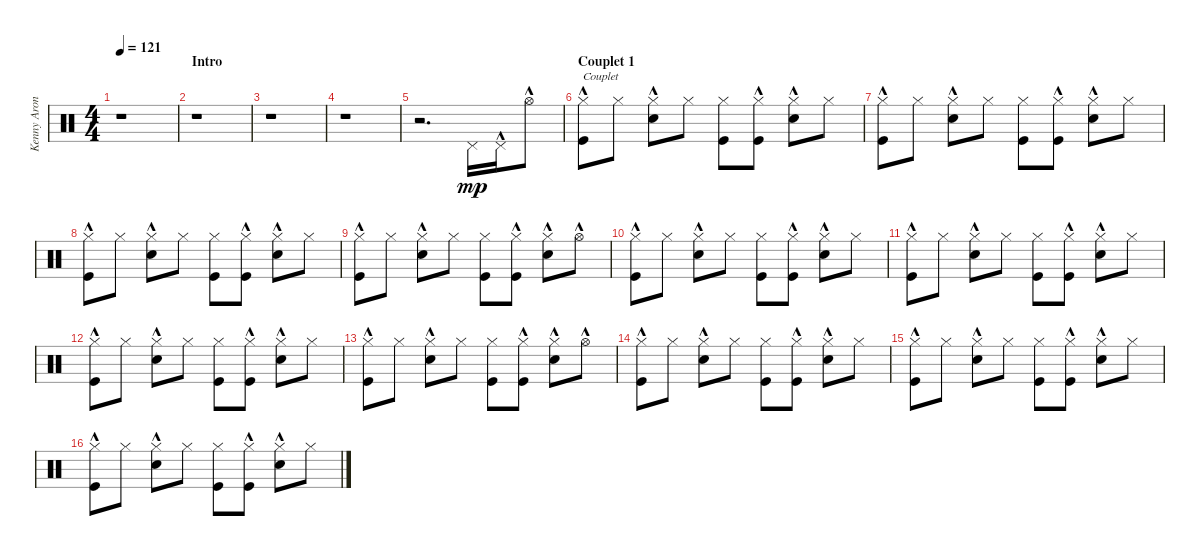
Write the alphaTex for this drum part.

\track ("Kenny Aronoff - Batterie" "Kenny Aron") {instrument percussion}
\staff {score}
\articulation defaults
\ts (4 4)
\tempo 121
\clef neutral
\ks c
r.1{dy mp} |
\section ("" "Intro")
r.1 |
r.1 |
r.1 |
r.2{d} "Pedal Hi-Hat (hit)".16 "Pedal Hi-Hat (hit)"{hac}.16 "Hi-Hat (open)"{hac}.8 |
\section ("" "Couplet 1")
("Kick (hit)"{hac} "Hi-Hat (closed)").8{txt "Couplet"} "Hi-Hat (closed)".8 ("Snare (hit) 2"{hac} "Hi-Hat (closed)").8 "Hi-Hat (closed)".8 ("Kick (hit)" "Hi-Hat (closed)").8 ("Kick (hit)"{hac} "Hi-Hat (closed)").8 ("Snare (hit) 2"{hac} "Hi-Hat (closed)").8 "Hi-Hat (closed)".8 |
("Kick (hit)"{hac} "Hi-Hat (closed)").8 "Hi-Hat (closed)".8 ("Snare (hit) 2"{hac} "Hi-Hat (closed)").8 "Hi-Hat (closed)".8 ("Kick (hit)" "Hi-Hat (closed)").8 ("Kick (hit)"{hac} "Hi-Hat (closed)").8 ("Snare (hit) 2"{hac} "Hi-Hat (closed)").8 "Hi-Hat (closed)".8 |
("Kick (hit)"{hac} "Hi-Hat (closed)").8 "Hi-Hat (closed)".8 ("Snare (hit) 2"{hac} "Hi-Hat (closed)").8 "Hi-Hat (closed)".8 ("Kick (hit)" "Hi-Hat (closed)").8 ("Kick (hit)"{hac} "Hi-Hat (closed)").8 ("Snare (hit) 2"{hac} "Hi-Hat (closed)").8 "Hi-Hat (closed)".8 |
("Kick (hit)"{hac} "Hi-Hat (closed)").8 "Hi-Hat (closed)".8 ("Snare (hit) 2"{hac} "Hi-Hat (closed)").8 "Hi-Hat (closed)".8 ("Kick (hit)" "Hi-Hat (closed)").8 ("Kick (hit)"{hac} "Hi-Hat (closed)").8 ("Snare (hit) 2"{hac} "Hi-Hat (closed)"{hac}).8 "Hi-Hat (open)"{hac}.8 |
("Kick (hit)"{hac} "Hi-Hat (closed)").8 "Hi-Hat (closed)".8 ("Snare (hit) 2"{hac} "Hi-Hat (closed)").8 "Hi-Hat (closed)".8 ("Kick (hit)" "Hi-Hat (closed)").8 ("Kick (hit)"{hac} "Hi-Hat (closed)").8 ("Snare (hit) 2"{hac} "Hi-Hat (closed)").8 "Hi-Hat (closed)".8 |
("Kick (hit)"{hac} "Hi-Hat (closed)").8 "Hi-Hat (closed)".8 ("Snare (hit) 2"{hac} "Hi-Hat (closed)").8 "Hi-Hat (closed)".8 ("Kick (hit)" "Hi-Hat (closed)").8 ("Kick (hit)"{hac} "Hi-Hat (closed)").8 ("Snare (hit) 2"{hac} "Hi-Hat (closed)").8 "Hi-Hat (closed)".8 |
("Kick (hit)"{hac} "Hi-Hat (closed)").8 "Hi-Hat (closed)".8 ("Snare (hit) 2"{hac} "Hi-Hat (closed)").8 "Hi-Hat (closed)".8 ("Kick (hit)" "Hi-Hat (closed)").8 ("Kick (hit)"{hac} "Hi-Hat (closed)").8 ("Snare (hit) 2"{hac} "Hi-Hat (closed)").8 "Hi-Hat (closed)".8 |
("Kick (hit)"{hac} "Hi-Hat (closed)").8 "Hi-Hat (closed)".8 ("Snare (hit) 2"{hac} "Hi-Hat (closed)").8 "Hi-Hat (closed)".8 ("Kick (hit)" "Hi-Hat (closed)").8 ("Kick (hit)"{hac} "Hi-Hat (closed)").8 ("Snare (hit) 2"{hac} "Hi-Hat (closed)"{hac}).8 "Hi-Hat (open)"{hac}.8 |
("Kick (hit)"{hac} "Hi-Hat (closed)").8 "Hi-Hat (closed)".8 ("Snare (hit) 2"{hac} "Hi-Hat (closed)").8 "Hi-Hat (closed)".8 ("Kick (hit)" "Hi-Hat (closed)").8 ("Kick (hit)"{hac} "Hi-Hat (closed)").8 ("Snare (hit) 2"{hac} "Hi-Hat (closed)").8 "Hi-Hat (closed)".8 |
("Kick (hit)"{hac} "Hi-Hat (closed)").8 "Hi-Hat (closed)".8 ("Snare (hit) 2"{hac} "Hi-Hat (closed)").8 "Hi-Hat (closed)".8 ("Kick (hit)" "Hi-Hat (closed)").8 ("Kick (hit)"{hac} "Hi-Hat (closed)").8 ("Snare (hit) 2"{hac} "Hi-Hat (closed)").8 "Hi-Hat (closed)".8 |
("Kick (hit)"{hac} "Hi-Hat (closed)").8 "Hi-Hat (closed)".8 ("Snare (hit) 2"{hac} "Hi-Hat (closed)").8 "Hi-Hat (closed)".8 ("Kick (hit)" "Hi-Hat (closed)").8 ("Kick (hit)"{hac} "Hi-Hat (closed)").8 ("Snare (hit) 2"{hac} "Hi-Hat (closed)").8 "Hi-Hat (closed)".8
